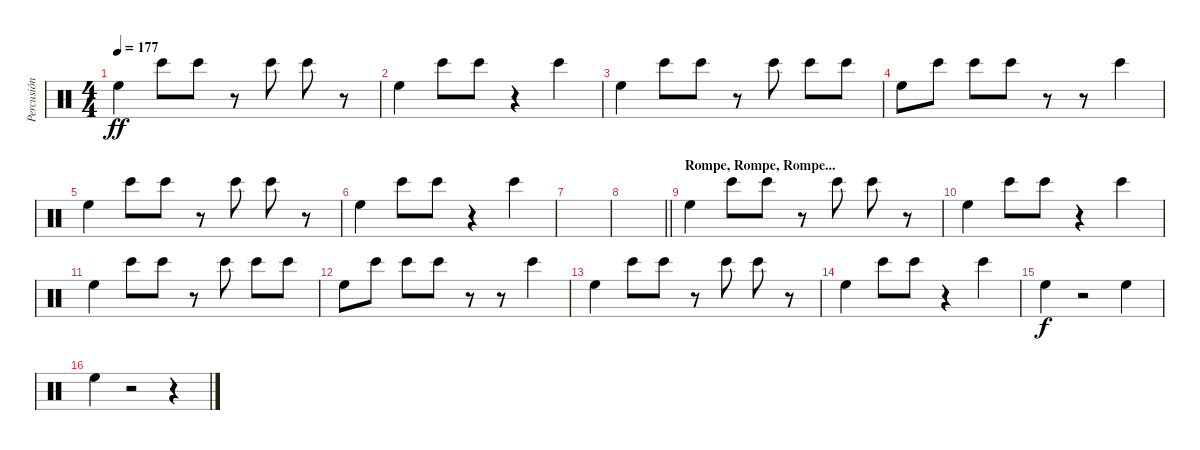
\track ("Percusión" "Percusión") {instrument percussion}
\staff {score}
\articulation defaults
\ts (4 4)
\tempo 177
\clef neutral
\ks c "High Floor Tom (hit)".4{dy ff} "Bongo High (hit)".8 "Bongo High (hit)".8
r.8 "Bongo High (hit)".8 "Bongo High (hit)".8 r.8 |
"High Floor Tom (hit)".4 "Bongo High (hit)".8 "Bongo High (hit)".8 r.4 "Bongo High (hit)".4 |
"High Floor Tom (hit)".4 "Bongo High (hit)".8 "Bongo High (hit)".8 r.8 "Bongo High (hit)".8 "Bongo High (hit)".8 "Bongo High (hit)".8 |
"High Floor Tom (hit)".8 "Bongo High (hit)".8 "Bongo High (hit)".8 "Bongo High (hit)".8 r.8 r.8 "Bongo High (hit)".4 |
"High Floor Tom (hit)".4 "Bongo High (hit)".8 "Bongo High (hit)".8 r.8 "Bongo High (hit)".8 "Bongo High (hit)".8 r.8 |
"High Floor Tom (hit)".4 "Bongo High (hit)".8 "Bongo High (hit)".8 r.4 "Bongo High (hit)".4 |
|
\barLineRight lightlight
|
\section ("" "Rompe, Rompe, Rompe...")
"High Floor Tom (hit)".4 "Bongo High (hit)".8 "Bongo High (hit)".8 r.8 "Bongo High (hit)".8 "Bongo High (hit)".8 r.8 |
"High Floor Tom (hit)".4 "Bongo High (hit)".8 "Bongo High (hit)".8 r.4 "Bongo High (hit)".4 |
"High Floor Tom (hit)".4 "Bongo High (hit)".8 "Bongo High (hit)".8 r.8 "Bongo High (hit)".8 "Bongo High (hit)".8 "Bongo High (hit)".8 |
"High Floor Tom (hit)".8 "Bongo High (hit)".8 "Bongo High (hit)".8 "Bongo High (hit)".8 r.8 r.8 "Bongo High (hit)".4 |
"High Floor Tom (hit)".4 "Bongo High (hit)".8 "Bongo High (hit)".8 r.8 "Bongo High (hit)".8 "Bongo High (hit)".8 r.8 |
"High Floor Tom (hit)".4 "Bongo High (hit)".8 "Bongo High (hit)".8 r.4 "Bongo High (hit)".4 |
"High Floor Tom (hit)".4{dy f} r.2 "High Floor Tom (hit)".4 |
"High Floor Tom (hit)".4 r.2 r.4
